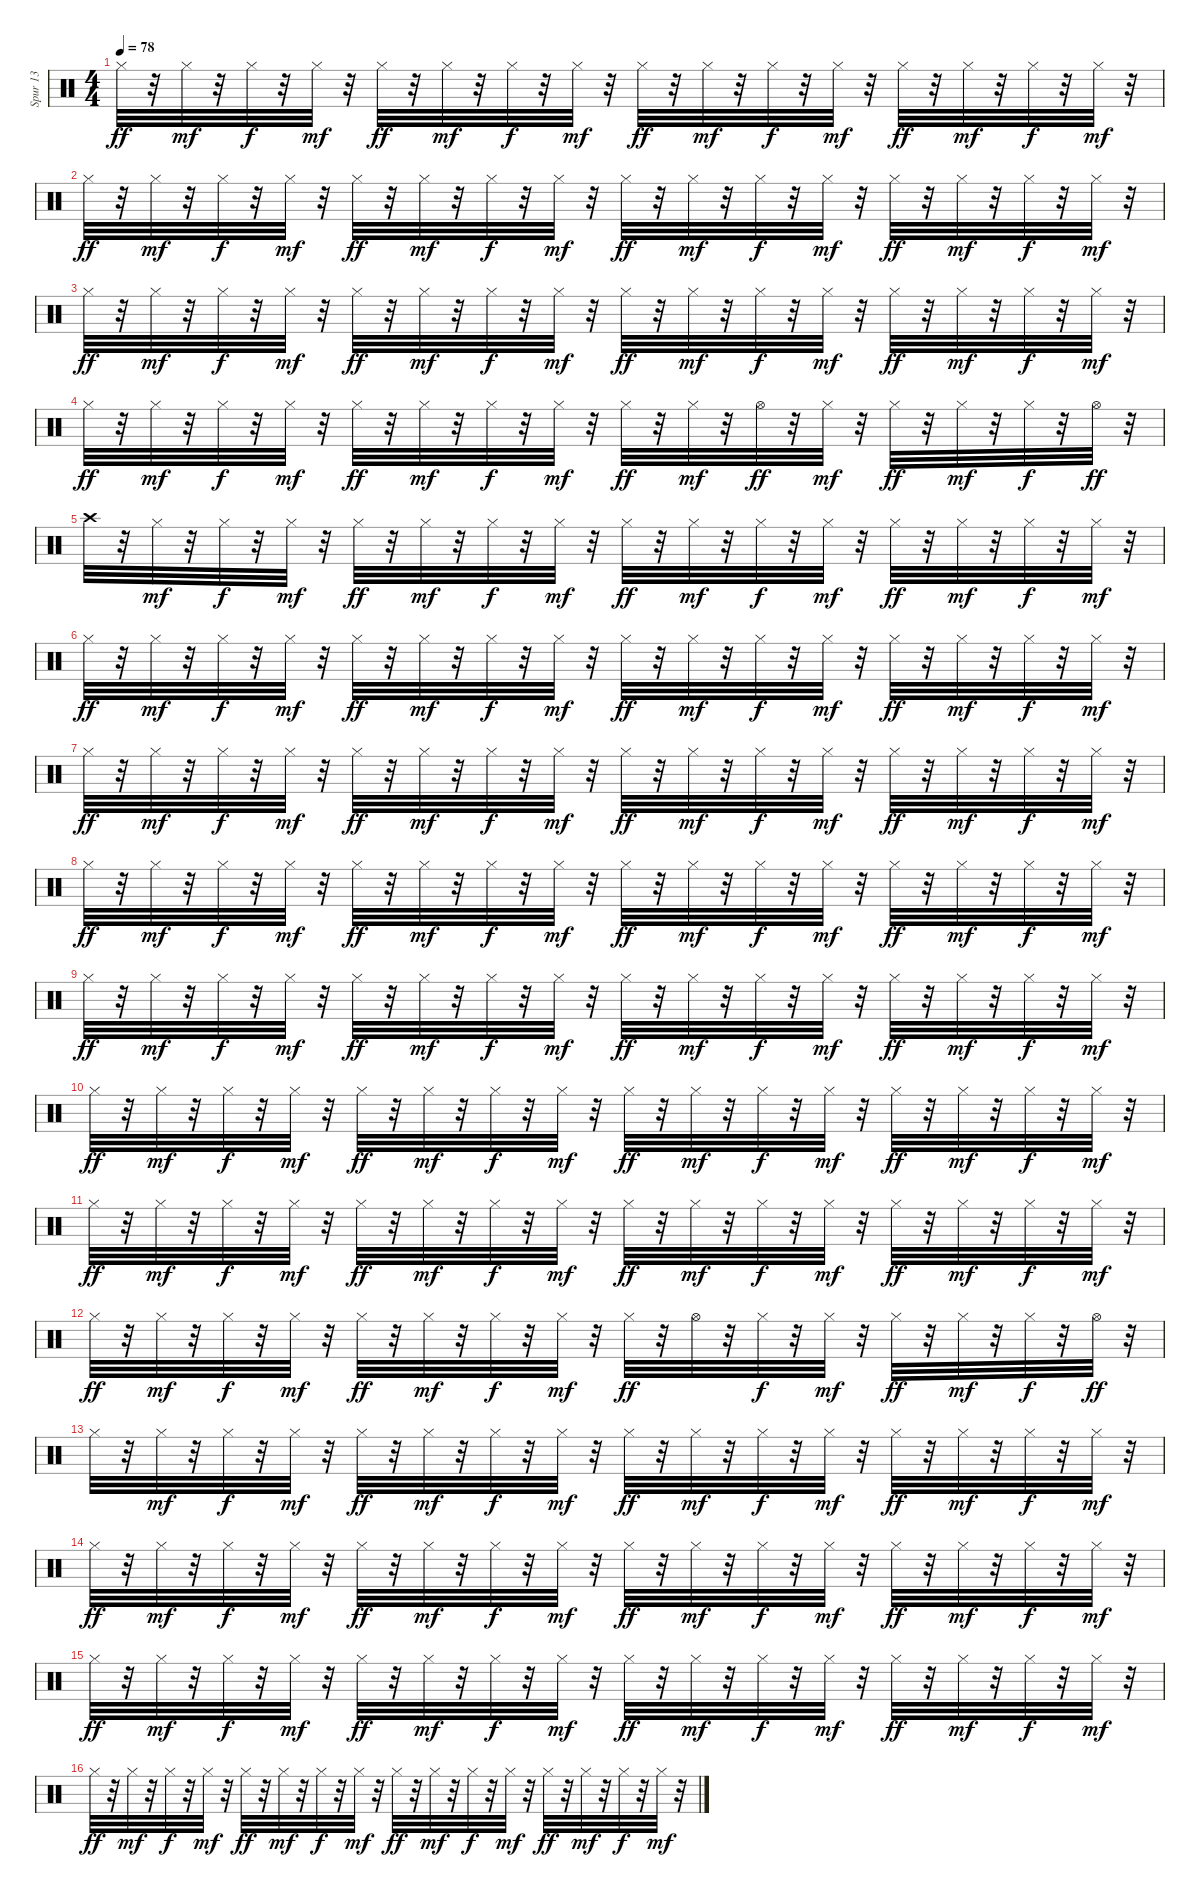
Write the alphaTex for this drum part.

\track ("Spur 13" "Spur 13") {instrument percussion}
\staff {score}
\articulation defaults
\ts (4 4)
\tempo 78
\clef neutral
\ks c "Hi-Hat (closed)".32{dy ff}
r.32 "Hi-Hat (closed)".32{dy mf} r.32 "Hi-Hat (closed)".32{dy f} r.32 "Hi-Hat (closed)".32{dy mf} r.32 "Hi-Hat (closed)".32{dy ff} r.32 "Hi-Hat (closed)".32{dy mf} r.32 "Hi-Hat (closed)".32{dy f} r.32 "Hi-Hat (closed)".32{dy mf} r.32 "Hi-Hat (closed)".32{dy ff} r.32 "Hi-Hat (closed)".32{dy mf} r.32 "Hi-Hat (closed)".32{dy f} r.32 "Hi-Hat (closed)".32{dy mf} r.32 "Hi-Hat (closed)".32{dy ff} r.32 "Hi-Hat (closed)".32{dy mf} r.32 "Hi-Hat (closed)".32{dy f} r.32 "Hi-Hat (closed)".32{dy mf} r.32 |
"Hi-Hat (closed)".32{dy ff} r.32 "Hi-Hat (closed)".32{dy mf} r.32 "Hi-Hat (closed)".32{dy f} r.32 "Hi-Hat (closed)".32{dy mf} r.32 "Hi-Hat (closed)".32{dy ff} r.32 "Hi-Hat (closed)".32{dy mf} r.32 "Hi-Hat (closed)".32{dy f} r.32 "Hi-Hat (closed)".32{dy mf} r.32 "Hi-Hat (closed)".32{dy ff} r.32 "Hi-Hat (closed)".32{dy mf} r.32 "Hi-Hat (closed)".32{dy f} r.32 "Hi-Hat (closed)".32{dy mf} r.32 "Hi-Hat (closed)".32{dy ff} r.32 "Hi-Hat (closed)".32{dy mf} r.32 "Hi-Hat (closed)".32{dy f} r.32 "Hi-Hat (closed)".32{dy mf} r.32 |
"Hi-Hat (closed)".32{dy ff} r.32 "Hi-Hat (closed)".32{dy mf} r.32 "Hi-Hat (closed)".32{dy f} r.32 "Hi-Hat (closed)".32{dy mf} r.32 "Hi-Hat (closed)".32{dy ff} r.32 "Hi-Hat (closed)".32{dy mf} r.32 "Hi-Hat (closed)".32{dy f} r.32 "Hi-Hat (closed)".32{dy mf} r.32 "Hi-Hat (closed)".32{dy ff} r.32 "Hi-Hat (closed)".32{dy mf} r.32 "Hi-Hat (closed)".32{dy f} r.32 "Hi-Hat (closed)".32{dy mf} r.32 "Hi-Hat (closed)".32{dy ff} r.32 "Hi-Hat (closed)".32{dy mf} r.32 "Hi-Hat (closed)".32{dy f} r.32 "Hi-Hat (closed)".32{dy mf} r.32 |
"Hi-Hat (closed)".32{dy ff} r.32 "Hi-Hat (closed)".32{dy mf} r.32 "Hi-Hat (closed)".32{dy f} r.32 "Hi-Hat (closed)".32{dy mf} r.32 "Hi-Hat (closed)".32{dy ff} r.32 "Hi-Hat (closed)".32{dy mf} r.32 "Hi-Hat (closed)".32{dy f} r.32 "Hi-Hat (closed)".32{dy mf} r.32 "Hi-Hat (closed)".32{dy ff} r.32 "Hi-Hat (closed)".32{dy mf} r.32 "Hi-Hat (open)".32{dy ff} r.32 "Hi-Hat (closed)".32{dy mf} r.32 "Hi-Hat (closed)".32{dy ff} r.32 "Hi-Hat (closed)".32{dy mf} r.32 "Hi-Hat (closed)".32{dy f} r.32 "Hi-Hat (open)".32{dy ff} r.32 |
"Crash high (hit)".32 r.32 "Hi-Hat (closed)".32{dy mf} r.32 "Hi-Hat (closed)".32{dy f} r.32 "Hi-Hat (closed)".32{dy mf} r.32 "Hi-Hat (closed)".32{dy ff} r.32 "Hi-Hat (closed)".32{dy mf} r.32 "Hi-Hat (closed)".32{dy f} r.32 "Hi-Hat (closed)".32{dy mf} r.32 "Hi-Hat (closed)".32{dy ff} r.32 "Hi-Hat (closed)".32{dy mf} r.32 "Hi-Hat (closed)".32{dy f} r.32 "Hi-Hat (closed)".32{dy mf} r.32 "Hi-Hat (closed)".32{dy ff} r.32 "Hi-Hat (closed)".32{dy mf} r.32 "Hi-Hat (closed)".32{dy f} r.32 "Hi-Hat (closed)".32{dy mf} r.32 |
"Hi-Hat (closed)".32{dy ff} r.32 "Hi-Hat (closed)".32{dy mf} r.32 "Hi-Hat (closed)".32{dy f} r.32 "Hi-Hat (closed)".32{dy mf} r.32 "Hi-Hat (closed)".32{dy ff} r.32 "Hi-Hat (closed)".32{dy mf} r.32 "Hi-Hat (closed)".32{dy f} r.32 "Hi-Hat (closed)".32{dy mf} r.32 "Hi-Hat (closed)".32{dy ff} r.32 "Hi-Hat (closed)".32{dy mf} r.32 "Hi-Hat (closed)".32{dy f} r.32 "Hi-Hat (closed)".32{dy mf} r.32 "Hi-Hat (closed)".32{dy ff} r.32 "Hi-Hat (closed)".32{dy mf} r.32 "Hi-Hat (closed)".32{dy f} r.32 "Hi-Hat (closed)".32{dy mf} r.32 |
"Hi-Hat (closed)".32{dy ff} r.32 "Hi-Hat (closed)".32{dy mf} r.32 "Hi-Hat (closed)".32{dy f} r.32 "Hi-Hat (closed)".32{dy mf} r.32 "Hi-Hat (closed)".32{dy ff} r.32 "Hi-Hat (closed)".32{dy mf} r.32 "Hi-Hat (closed)".32{dy f} r.32 "Hi-Hat (closed)".32{dy mf} r.32 "Hi-Hat (closed)".32{dy ff} r.32 "Hi-Hat (closed)".32{dy mf} r.32 "Hi-Hat (closed)".32{dy f} r.32 "Hi-Hat (closed)".32{dy mf} r.32 "Hi-Hat (closed)".32{dy ff} r.32 "Hi-Hat (closed)".32{dy mf} r.32 "Hi-Hat (closed)".32{dy f} r.32 "Hi-Hat (closed)".32{dy mf} r.32 |
"Hi-Hat (closed)".32{dy ff} r.32 "Hi-Hat (closed)".32{dy mf} r.32 "Hi-Hat (closed)".32{dy f} r.32 "Hi-Hat (closed)".32{dy mf} r.32 "Hi-Hat (closed)".32{dy ff} r.32 "Hi-Hat (closed)".32{dy mf} r.32 "Hi-Hat (closed)".32{dy f} r.32 "Hi-Hat (closed)".32{dy mf} r.32 "Hi-Hat (closed)".32{dy ff} r.32 "Hi-Hat (closed)".32{dy mf} r.32 "Hi-Hat (closed)".32{dy f} r.32 "Hi-Hat (closed)".32{dy mf} r.32 "Hi-Hat (closed)".32{dy ff} r.32 "Hi-Hat (closed)".32{dy mf} r.32 "Hi-Hat (closed)".32{dy f} r.32 "Hi-Hat (closed)".32{dy mf} r.32 |
"Hi-Hat (closed)".32{dy ff} r.32 "Hi-Hat (closed)".32{dy mf} r.32 "Hi-Hat (closed)".32{dy f} r.32 "Hi-Hat (closed)".32{dy mf} r.32 "Hi-Hat (closed)".32{dy ff} r.32 "Hi-Hat (closed)".32{dy mf} r.32 "Hi-Hat (closed)".32{dy f} r.32 "Hi-Hat (closed)".32{dy mf} r.32 "Hi-Hat (closed)".32{dy ff} r.32 "Hi-Hat (closed)".32{dy mf} r.32 "Hi-Hat (closed)".32{dy f} r.32 "Hi-Hat (closed)".32{dy mf} r.32 "Hi-Hat (closed)".32{dy ff} r.32 "Hi-Hat (closed)".32{dy mf} r.32 "Hi-Hat (closed)".32{dy f} r.32 "Hi-Hat (closed)".32{dy mf} r.32 |
"Hi-Hat (closed)".32{dy ff} r.32 "Hi-Hat (closed)".32{dy mf} r.32 "Hi-Hat (closed)".32{dy f} r.32 "Hi-Hat (closed)".32{dy mf} r.32 "Hi-Hat (closed)".32{dy ff} r.32 "Hi-Hat (closed)".32{dy mf} r.32 "Hi-Hat (closed)".32{dy f} r.32 "Hi-Hat (closed)".32{dy mf} r.32 "Hi-Hat (closed)".32{dy ff} r.32 "Hi-Hat (closed)".32{dy mf} r.32 "Hi-Hat (closed)".32{dy f} r.32 "Hi-Hat (closed)".32{dy mf} r.32 "Hi-Hat (closed)".32{dy ff} r.32 "Hi-Hat (closed)".32{dy mf} r.32 "Hi-Hat (closed)".32{dy f} r.32 "Hi-Hat (closed)".32{dy mf} r.32 |
"Hi-Hat (closed)".32{dy ff} r.32 "Hi-Hat (closed)".32{dy mf} r.32 "Hi-Hat (closed)".32{dy f} r.32 "Hi-Hat (closed)".32{dy mf} r.32 "Hi-Hat (closed)".32{dy ff} r.32 "Hi-Hat (closed)".32{dy mf} r.32 "Hi-Hat (closed)".32{dy f} r.32 "Hi-Hat (closed)".32{dy mf} r.32 "Hi-Hat (closed)".32{dy ff} r.32 "Hi-Hat (closed)".32{dy mf} r.32 "Hi-Hat (closed)".32{dy f} r.32 "Hi-Hat (closed)".32{dy mf} r.32 "Hi-Hat (closed)".32{dy ff} r.32 "Hi-Hat (closed)".32{dy mf} r.32 "Hi-Hat (closed)".32{dy f} r.32 "Hi-Hat (closed)".32{dy mf} r.32 |
"Hi-Hat (closed)".32{dy ff} r.32 "Hi-Hat (closed)".32{dy mf} r.32 "Hi-Hat (closed)".32{dy f} r.32 "Hi-Hat (closed)".32{dy mf} r.32 "Hi-Hat (closed)".32{dy ff} r.32 "Hi-Hat (closed)".32{dy mf} r.32 "Hi-Hat (closed)".32{dy f} r.32 "Hi-Hat (closed)".32{dy mf} r.32 "Hi-Hat (closed)".32{dy ff} r.32 "Hi-Hat (open)".32 r.32 "Hi-Hat (closed)".32{dy f} r.32 "Hi-Hat (closed)".32{dy mf} r.32 "Hi-Hat (closed)".32{dy ff} r.32 "Hi-Hat (closed)".32{dy mf} r.32 "Hi-Hat (closed)".32{dy f} r.32 "Hi-Hat (open)".32{dy ff} r.32 |
"Hi-Hat (closed)".32 r.32 "Hi-Hat (closed)".32{dy mf} r.32 "Hi-Hat (closed)".32{dy f} r.32 "Hi-Hat (closed)".32{dy mf} r.32 "Hi-Hat (closed)".32{dy ff} r.32 "Hi-Hat (closed)".32{dy mf} r.32 "Hi-Hat (closed)".32{dy f} r.32 "Hi-Hat (closed)".32{dy mf} r.32 "Hi-Hat (closed)".32{dy ff} r.32 "Hi-Hat (closed)".32{dy mf} r.32 "Hi-Hat (closed)".32{dy f} r.32 "Hi-Hat (closed)".32{dy mf} r.32 "Hi-Hat (closed)".32{dy ff} r.32 "Hi-Hat (closed)".32{dy mf} r.32 "Hi-Hat (closed)".32{dy f} r.32 "Hi-Hat (closed)".32{dy mf} r.32 |
"Hi-Hat (closed)".32{dy ff} r.32 "Hi-Hat (closed)".32{dy mf} r.32 "Hi-Hat (closed)".32{dy f} r.32 "Hi-Hat (closed)".32{dy mf} r.32 "Hi-Hat (closed)".32{dy ff} r.32 "Hi-Hat (closed)".32{dy mf} r.32 "Hi-Hat (closed)".32{dy f} r.32 "Hi-Hat (closed)".32{dy mf} r.32 "Hi-Hat (closed)".32{dy ff} r.32 "Hi-Hat (closed)".32{dy mf} r.32 "Hi-Hat (closed)".32{dy f} r.32 "Hi-Hat (closed)".32{dy mf} r.32 "Hi-Hat (closed)".32{dy ff} r.32 "Hi-Hat (closed)".32{dy mf} r.32 "Hi-Hat (closed)".32{dy f} r.32 "Hi-Hat (closed)".32{dy mf} r.32 |
"Hi-Hat (closed)".32{dy ff} r.32 "Hi-Hat (closed)".32{dy mf} r.32 "Hi-Hat (closed)".32{dy f} r.32 "Hi-Hat (closed)".32{dy mf} r.32 "Hi-Hat (closed)".32{dy ff} r.32 "Hi-Hat (closed)".32{dy mf} r.32 "Hi-Hat (closed)".32{dy f} r.32 "Hi-Hat (closed)".32{dy mf} r.32 "Hi-Hat (closed)".32{dy ff} r.32 "Hi-Hat (closed)".32{dy mf} r.32 "Hi-Hat (closed)".32{dy f} r.32 "Hi-Hat (closed)".32{dy mf} r.32 "Hi-Hat (closed)".32{dy ff} r.32 "Hi-Hat (closed)".32{dy mf} r.32 "Hi-Hat (closed)".32{dy f} r.32 "Hi-Hat (closed)".32{dy mf} r.32 |
"Hi-Hat (closed)".32{dy ff} r.32 "Hi-Hat (closed)".32{dy mf} r.32 "Hi-Hat (closed)".32{dy f} r.32 "Hi-Hat (closed)".32{dy mf} r.32 "Hi-Hat (closed)".32{dy ff} r.32 "Hi-Hat (closed)".32{dy mf} r.32 "Hi-Hat (closed)".32{dy f} r.32 "Hi-Hat (closed)".32{dy mf} r.32 "Hi-Hat (closed)".32{dy ff} r.32 "Hi-Hat (closed)".32{dy mf} r.32 "Hi-Hat (closed)".32{dy f} r.32 "Hi-Hat (closed)".32{dy mf} r.32 "Hi-Hat (closed)".32{dy ff} r.32 "Hi-Hat (closed)".32{dy mf} r.32 "Hi-Hat (closed)".32{dy f} r.32 "Hi-Hat (closed)".32{dy mf} r.32
